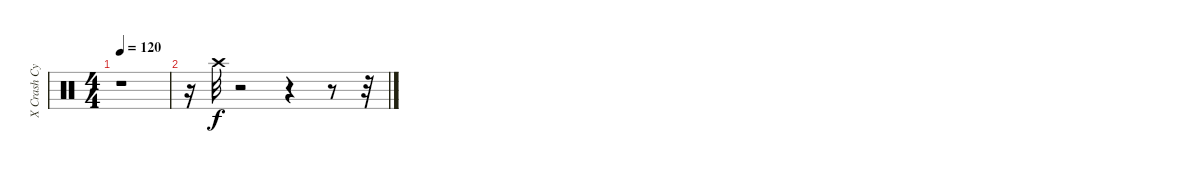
\track ("X Crash Cymbal      " "X Crash Cy") {instrument percussion}
\staff {score}
\articulation defaults
\ts (4 4)
\tempo 120
\clef neutral
\ks c
r.1{dy f} |
r.16 "Crash high (hit)".32 r.2 r.4 r.8 r.32
